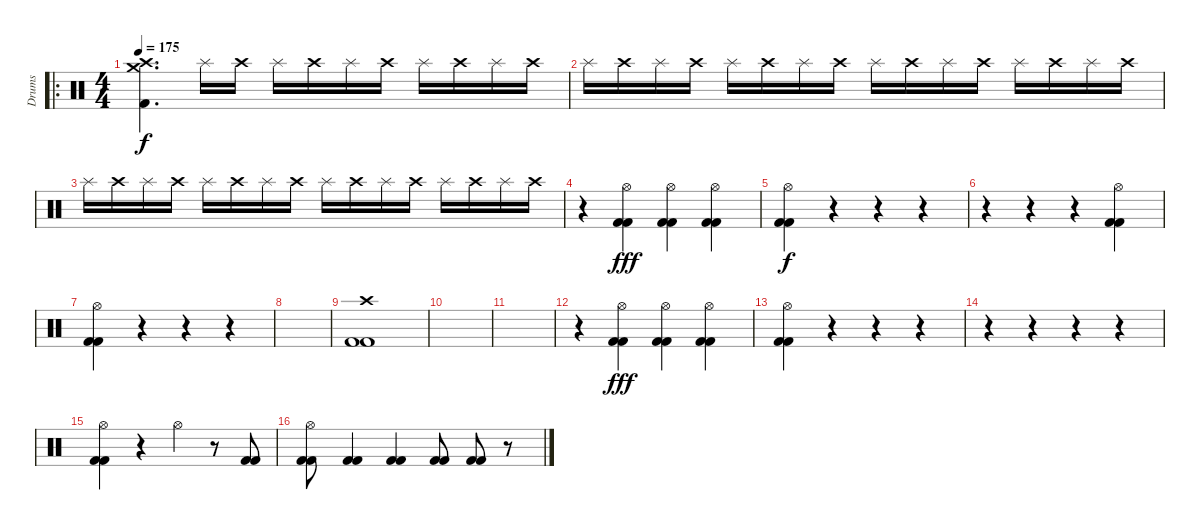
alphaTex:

\track ("Drums" "Drums") {instrument percussion}
\staff {score}
\articulation defaults
\ro
\ts (4 4)
\tempo 175
\clef neutral
\ks c
("Kick (hit) 2" "Crash high (hit)" "Crash medium (hit)").4{d dy f} "Splash (hit)".16{volume 4} "Crash high (hit)".16 "Splash (hit)".16 "Crash high (hit)".16 "Splash (hit)".16 "Crash high (hit)".16 "Splash (hit)".16 "Crash high (hit)".16 "Splash (hit)".16 "Crash high (hit)".16 |
"Splash (hit)".16{volume 5} "Crash high (hit)".16{volume 13} "Splash (hit)".16 "Crash high (hit)".16 "Splash (hit)".16 "Crash high (hit)".16 "Splash (hit)".16 "Crash high (hit)".16 "Splash (hit)".16 "Crash high (hit)".16 "Splash (hit)".16 "Crash high (hit)".16 "Splash (hit)".16 "Crash high (hit)".16 "Splash (hit)".16 "Crash high (hit)".16 |
"Splash (hit)".16 "Crash high (hit)".16 "Splash (hit)".16 "Crash high (hit)".16 "Splash (hit)".16 "Crash high (hit)".16 "Splash (hit)".16 "Crash high (hit)".16 "Splash (hit)".16 "Crash high (hit)".16 "Splash (hit)".16 "Crash high (hit)".16 "Splash (hit)".16 "Crash high (hit)".16 "Splash (hit)".16 "Crash high (hit)".16 |
r.4 ("Kick (hit) 2" "Hi-Hat (open)" "Kick (hit) 2").4{dy fff volume 16} ("Kick (hit) 2" "Hi-Hat (open)" "Kick (hit) 2").4 ("Kick (hit) 2" "Hi-Hat (open)" "Kick (hit) 2").4 |
("Kick (hit) 2" "Hi-Hat (open)" "Kick (hit) 2").4{dy f} r.4 r.4 r.4 |
r.4 r.4 r.4 ("Kick (hit) 2" "Hi-Hat (open)" "Kick (hit) 2").4 |
("Kick (hit) 2" "Hi-Hat (open)" "Kick (hit) 2").4 r.4 r.4 r.4 |
|
("Kick (hit) 2" "Crash high (hit)" "Kick (hit) 2").1 |
|
|
r.4 ("Kick (hit) 2" "Hi-Hat (open)" "Kick (hit) 2").4{dy fff} ("Kick (hit) 2" "Hi-Hat (open)" "Kick (hit) 2").4 ("Kick (hit) 2" "Hi-Hat (open)" "Kick (hit) 2").4 |
("Kick (hit) 2" "Hi-Hat (open)" "Kick (hit) 2").4 r.4 r.4 r.4 |
r.4 r.4 r.4 r.4 |
("Kick (hit) 2" "Hi-Hat (open)" "Kick (hit) 2").4 r.4 "Hi-Hat (open)".4 r.8 ("Kick (hit) 2" "Kick (hit) 2").8 |
("Kick (hit) 2" "Hi-Hat (open)" "Kick (hit) 2").8 ("Kick (hit) 2" "Kick (hit) 2").4 ("Kick (hit) 2" "Kick (hit) 2").4 ("Kick (hit) 2" "Kick (hit) 2").8 ("Kick (hit) 2" "Kick (hit) 2").8 r.8
